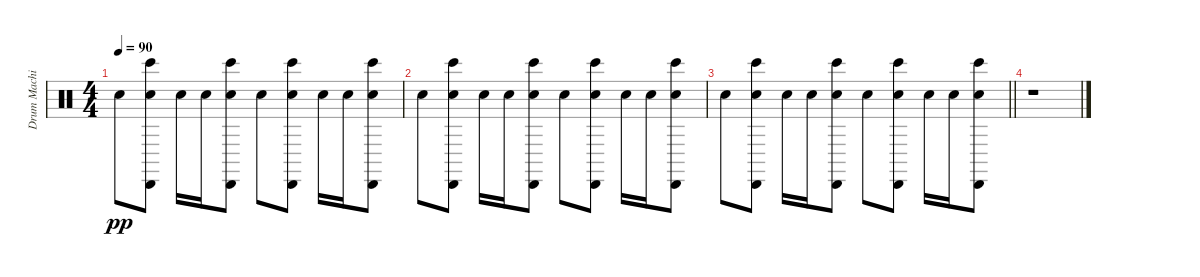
\track ("Drum Machine" "Drum Machi") {instrument percussion}
\staff {score}
\articulation defaults
\ts (4 4)
\tempo 90
\clef neutral
\ks c "Hand Clap (hit)".8{dy pp}
("Hand Clap (hit)" "Cabasa (hit)" "Bongo High (hit)").8 "Hand Clap (hit)".16 "Hand Clap (hit)".16 ("Hand Clap (hit)" "Cabasa (hit)" "Bongo High (hit)").8 "Hand Clap (hit)".8 ("Hand Clap (hit)" "Cabasa (hit)" "Bongo High (hit)").8 "Hand Clap (hit)".16 "Hand Clap (hit)".16 ("Hand Clap (hit)" "Cabasa (hit)" "Bongo High (hit)").8 |
"Hand Clap (hit)".8 ("Hand Clap (hit)" "Cabasa (hit)" "Bongo High (hit)").8 "Hand Clap (hit)".16 "Hand Clap (hit)".16 ("Hand Clap (hit)" "Cabasa (hit)" "Bongo High (hit)").8 "Hand Clap (hit)".8 ("Hand Clap (hit)" "Cabasa (hit)" "Bongo High (hit)").8 "Hand Clap (hit)".16 "Hand Clap (hit)".16 ("Hand Clap (hit)" "Cabasa (hit)" "Bongo High (hit)").8 |
\barLineRight lightlight "Hand Clap (hit)".8
("Hand Clap (hit)" "Cabasa (hit)" "Bongo High (hit)").8 "Hand Clap (hit)".16 "Hand Clap (hit)".16 ("Hand Clap (hit)" "Cabasa (hit)" "Bongo High (hit)").8 "Hand Clap (hit)".8 ("Hand Clap (hit)" "Cabasa (hit)" "Bongo High (hit)").8 "Hand Clap (hit)".16 "Hand Clap (hit)".16 ("Hand Clap (hit)" "Cabasa (hit)" "Bongo High (hit)").8 |
r.1
